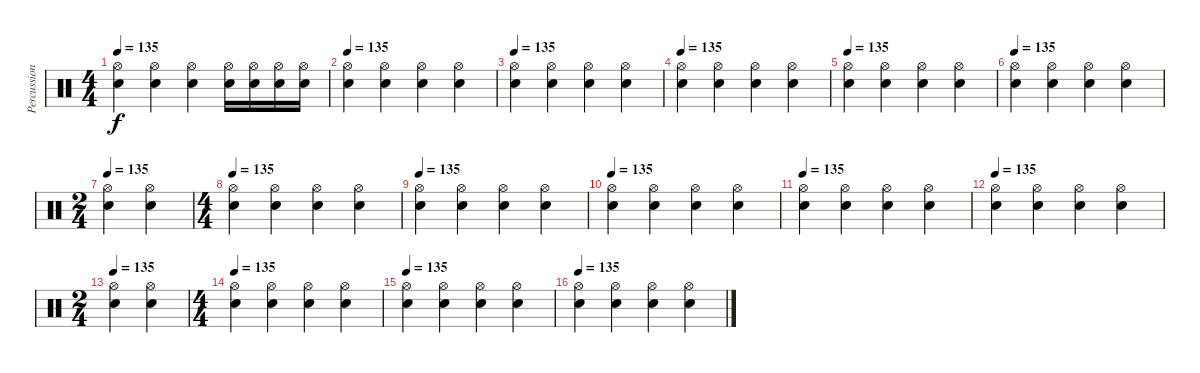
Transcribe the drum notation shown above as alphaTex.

\track ("Percussions" "Percussion") {instrument percussion}
\staff {score}
\articulation defaults
\ts (4 4)
\tempo 135
\clef neutral
\ks c
("Hi-Hat (open)" "Electric Snare (hit)").4{dy f} ("Hi-Hat (open)" "Electric Snare (hit)").4 ("Hi-Hat (open)" "Electric Snare (hit)").4 ("Hi-Hat (open)" "Electric Snare (hit)").16 ("Hi-Hat (open)" "Electric Snare (hit)").16 ("Hi-Hat (open)" "Electric Snare (hit)").16 ("Hi-Hat (open)" "Electric Snare (hit)").16 |
\tempo 135
("Hi-Hat (open)" "Electric Snare (hit)").4 ("Hi-Hat (open)" "Electric Snare (hit)").4 ("Hi-Hat (open)" "Electric Snare (hit)").4 ("Hi-Hat (open)" "Electric Snare (hit)").4 |
\tempo 135
("Hi-Hat (open)" "Electric Snare (hit)").4 ("Hi-Hat (open)" "Electric Snare (hit)").4 ("Hi-Hat (open)" "Electric Snare (hit)").4 ("Hi-Hat (open)" "Electric Snare (hit)").4 |
\tempo 135
("Hi-Hat (open)" "Electric Snare (hit)").4 ("Hi-Hat (open)" "Electric Snare (hit)").4 ("Hi-Hat (open)" "Electric Snare (hit)").4 ("Hi-Hat (open)" "Electric Snare (hit)").4 |
\tempo 135
("Hi-Hat (open)" "Electric Snare (hit)").4 ("Hi-Hat (open)" "Electric Snare (hit)").4 ("Hi-Hat (open)" "Electric Snare (hit)").4 ("Hi-Hat (open)" "Electric Snare (hit)").4 |
\tempo 135
("Hi-Hat (open)" "Electric Snare (hit)").4 ("Hi-Hat (open)" "Electric Snare (hit)").4 ("Hi-Hat (open)" "Electric Snare (hit)").4 ("Hi-Hat (open)" "Electric Snare (hit)").4 |
\ts (2 4)
\tempo 135
("Hi-Hat (open)" "Electric Snare (hit)").4 ("Hi-Hat (open)" "Electric Snare (hit)").4 |
\ts (4 4)
\tempo 135
("Hi-Hat (open)" "Electric Snare (hit)").4 ("Hi-Hat (open)" "Electric Snare (hit)").4 ("Hi-Hat (open)" "Electric Snare (hit)").4 ("Hi-Hat (open)" "Electric Snare (hit)").4 |
\tempo 135
("Hi-Hat (open)" "Electric Snare (hit)").4 ("Hi-Hat (open)" "Electric Snare (hit)").4 ("Hi-Hat (open)" "Electric Snare (hit)").4 ("Hi-Hat (open)" "Electric Snare (hit)").4 |
\tempo 135
("Hi-Hat (open)" "Electric Snare (hit)").4 ("Hi-Hat (open)" "Electric Snare (hit)").4 ("Hi-Hat (open)" "Electric Snare (hit)").4 ("Hi-Hat (open)" "Electric Snare (hit)").4 |
\tempo 135
("Hi-Hat (open)" "Electric Snare (hit)").4 ("Hi-Hat (open)" "Electric Snare (hit)").4 ("Hi-Hat (open)" "Electric Snare (hit)").4 ("Hi-Hat (open)" "Electric Snare (hit)").4 |
\tempo 135
("Hi-Hat (open)" "Electric Snare (hit)").4 ("Hi-Hat (open)" "Electric Snare (hit)").4 ("Hi-Hat (open)" "Electric Snare (hit)").4 ("Hi-Hat (open)" "Electric Snare (hit)").4 |
\ts (2 4)
\tempo 135
("Hi-Hat (open)" "Electric Snare (hit)").4 ("Hi-Hat (open)" "Electric Snare (hit)").4 |
\ts (4 4)
\tempo 135
("Hi-Hat (open)" "Electric Snare (hit)").4 ("Hi-Hat (open)" "Electric Snare (hit)").4 ("Hi-Hat (open)" "Electric Snare (hit)").4 ("Hi-Hat (open)" "Electric Snare (hit)").4 |
\tempo 135
("Hi-Hat (open)" "Electric Snare (hit)").4 ("Hi-Hat (open)" "Electric Snare (hit)").4 ("Hi-Hat (open)" "Electric Snare (hit)").4 ("Hi-Hat (open)" "Electric Snare (hit)").4 |
\tempo 135
("Hi-Hat (open)" "Electric Snare (hit)").4 ("Hi-Hat (open)" "Electric Snare (hit)").4 ("Hi-Hat (open)" "Electric Snare (hit)").4 ("Hi-Hat (open)" "Electric Snare (hit)").4
